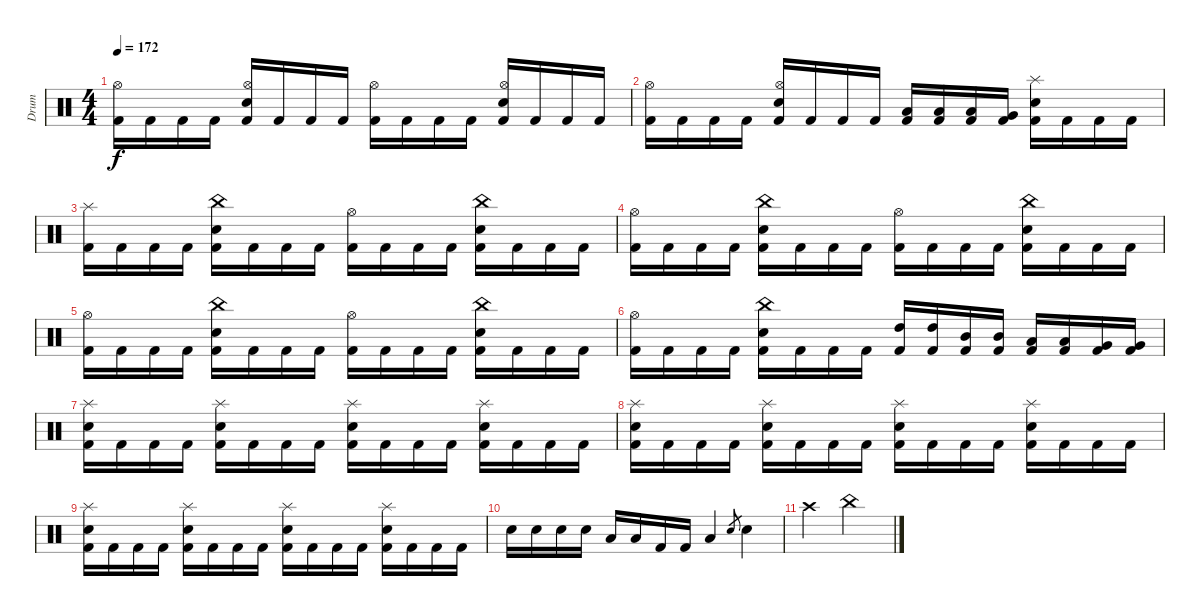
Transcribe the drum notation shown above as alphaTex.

\track ("Drum" "Drum") {instrument percussion}
\staff {score}
\articulation defaults
\ts (4 4)
\tempo 172
\clef neutral
\ks c
("Kick (hit) 2" "Hi-Hat (open)").16{dy f} "Kick (hit) 2".16 "Kick (hit) 2".16 "Kick (hit) 2".16 ("Kick (hit) 2" "Hi-Hat (open)" "Electric Snare (hit)").16 "Kick (hit) 2".16 "Kick (hit) 2".16 "Kick (hit) 2".16 ("Kick (hit) 2" "Hi-Hat (open)").16 "Kick (hit) 2".16 "Kick (hit) 2".16 "Kick (hit) 2".16 ("Kick (hit) 2" "Hi-Hat (open)" "Electric Snare (hit)").16 "Kick (hit) 2".16 "Kick (hit) 2".16 "Kick (hit) 2".16 |
("Kick (hit) 2" "Hi-Hat (open)").16 "Kick (hit) 2".16 "Kick (hit) 2".16 "Kick (hit) 2".16 ("Kick (hit) 2" "Hi-Hat (open)" "Electric Snare (hit)").16 "Kick (hit) 2".16 "Kick (hit) 2".16 "Kick (hit) 2".16 ("Kick (hit) 2" "Low Tom (hit)").16 ("Kick (hit) 2" "Low Tom (hit)").16 ("Kick (hit) 2" "Low Tom (hit)").16 ("Kick (hit) 2" "Very Low Tom (hit)").16 ("Kick (hit) 2" "Splash (hit)" "Electric Snare (hit)").16 "Kick (hit) 2".16 "Kick (hit) 2".16 "Kick (hit) 2".16 |
("Kick (hit) 2" "Splash (hit)").16 "Kick (hit) 2".16 "Kick (hit) 2".16 "Kick (hit) 2".16 ("Kick (hit) 2" "China (hit)" "Electric Snare (hit)").16 "Kick (hit) 2".16 "Kick (hit) 2".16 "Kick (hit) 2".16 ("Kick (hit) 2" "Hi-Hat (open)").16 "Kick (hit) 2".16 "Kick (hit) 2".16 "Kick (hit) 2".16 ("Kick (hit) 2" "China (hit)" "Electric Snare (hit)").16 "Kick (hit) 2".16 "Kick (hit) 2".16 "Kick (hit) 2".16 |
("Kick (hit) 2" "Hi-Hat (open)").16 "Kick (hit) 2".16 "Kick (hit) 2".16 "Kick (hit) 2".16 ("Kick (hit) 2" "China (hit)" "Electric Snare (hit)").16 "Kick (hit) 2".16 "Kick (hit) 2".16 "Kick (hit) 2".16 ("Kick (hit) 2" "Hi-Hat (open)").16 "Kick (hit) 2".16 "Kick (hit) 2".16 "Kick (hit) 2".16 ("Kick (hit) 2" "China (hit)" "Electric Snare (hit)").16 "Kick (hit) 2".16 "Kick (hit) 2".16 "Kick (hit) 2".16 |
("Kick (hit) 2" "Hi-Hat (open)").16 "Kick (hit) 2".16 "Kick (hit) 2".16 "Kick (hit) 2".16 ("Kick (hit) 2" "China (hit)" "Electric Snare (hit)").16 "Kick (hit) 2".16 "Kick (hit) 2".16 "Kick (hit) 2".16 ("Kick (hit) 2" "Hi-Hat (open)").16 "Kick (hit) 2".16 "Kick (hit) 2".16 "Kick (hit) 2".16 ("Kick (hit) 2" "China (hit)" "Electric Snare (hit)").16 "Kick (hit) 2".16 "Kick (hit) 2".16 "Kick (hit) 2".16 |
("Kick (hit) 2" "Hi-Hat (open)").16 "Kick (hit) 2".16 "Kick (hit) 2".16 "Kick (hit) 2".16 ("Kick (hit) 2" "China (hit)" "Electric Snare (hit)").16 "Kick (hit) 2".16 "Kick (hit) 2".16 "Kick (hit) 2".16 ("Kick (hit) 2" "High Tom (hit)").16 ("Kick (hit) 2" "High Tom (hit)").16 ("Kick (hit) 2" "Mid Tom (hit)").16 ("Kick (hit) 2" "Mid Tom (hit)").16 ("Kick (hit) 2" "Low Tom (hit)").16 ("Kick (hit) 2" "Low Tom (hit)").16 ("Kick (hit) 2" "Very Low Tom (hit)").16 ("Kick (hit) 2" "Very Low Tom (hit)").16 |
("Kick (hit) 2" "Splash (hit)" "Electric Snare (hit)").16 "Kick (hit) 2".16 "Kick (hit) 2".16 "Kick (hit) 2".16 ("Kick (hit) 2" "Splash (hit)" "Electric Snare (hit)").16 "Kick (hit) 2".16 "Kick (hit) 2".16 "Kick (hit) 2".16 ("Kick (hit) 2" "Splash (hit)" "Electric Snare (hit)").16 "Kick (hit) 2".16 "Kick (hit) 2".16 "Kick (hit) 2".16 ("Kick (hit) 2" "Splash (hit)" "Electric Snare (hit)").16 "Kick (hit) 2".16 "Kick (hit) 2".16 "Kick (hit) 2".16 |
("Kick (hit) 2" "Splash (hit)" "Electric Snare (hit)").16 "Kick (hit) 2".16 "Kick (hit) 2".16 "Kick (hit) 2".16 ("Kick (hit) 2" "Splash (hit)" "Electric Snare (hit)").16 "Kick (hit) 2".16 "Kick (hit) 2".16 "Kick (hit) 2".16 ("Kick (hit) 2" "Splash (hit)" "Electric Snare (hit)").16 "Kick (hit) 2".16 "Kick (hit) 2".16 "Kick (hit) 2".16 ("Kick (hit) 2" "Splash (hit)" "Electric Snare (hit)").16 "Kick (hit) 2".16 "Kick (hit) 2".16 "Kick (hit) 2".16 |
("Kick (hit) 2" "Splash (hit)" "Electric Snare (hit)").16 "Kick (hit) 2".16 "Kick (hit) 2".16 "Kick (hit) 2".16 ("Kick (hit) 2" "Splash (hit)" "Electric Snare (hit)").16 "Kick (hit) 2".16 "Kick (hit) 2".16 "Kick (hit) 2".16 ("Kick (hit) 2" "Splash (hit)" "Electric Snare (hit)").16 "Kick (hit) 2".16 "Kick (hit) 2".16 "Kick (hit) 2".16 ("Kick (hit) 2" "Splash (hit)" "Electric Snare (hit)").16 "Kick (hit) 2".16 "Kick (hit) 2".16 "Kick (hit) 2".16 |
"Electric Snare (hit)".16 "Electric Snare (hit)".16 "Electric Snare (hit)".16 "Electric Snare (hit)".16 "Low Tom (hit)".16 "Low Tom (hit)".16 "Kick (hit) 2".16 "Kick (hit) 2".16 "Low Floor Tom (hit)".4 "Electric Snare (hit)".8{gr} "Electric Snare (hit)".4 |
"Crash high (hit)".2 "China (hit)".2
